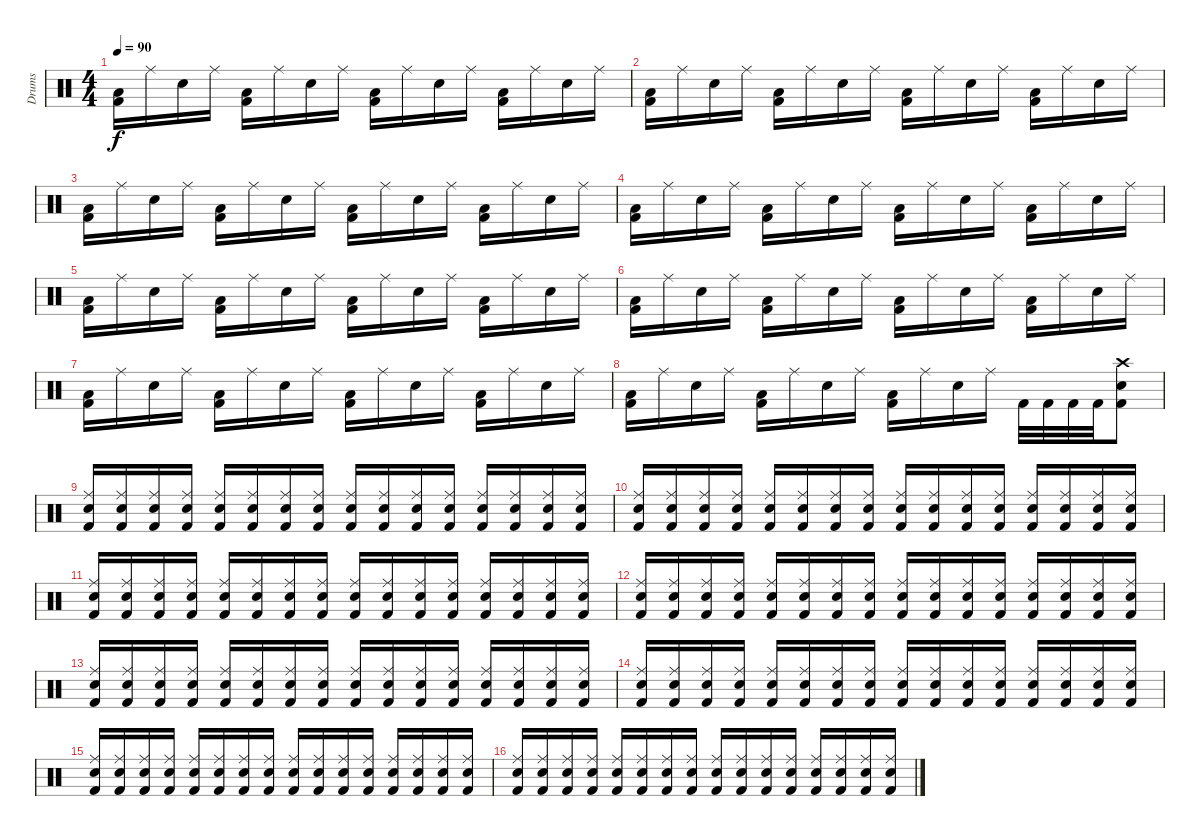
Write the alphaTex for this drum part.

\track ("Drums" "Drums") {instrument percussion}
\staff {score}
\articulation defaults
\ts (4 4)
\tempo 90
\clef neutral
\ks c
("Low Floor Tom (hit)" "Kick (hit) 2").16{dy f} "Ride (middle)".16 "Snare (hit) 2".16 "Ride (middle)".16 ("Low Floor Tom (hit)" "Kick (hit) 2").16 "Ride (middle)".16 "Snare (hit) 2".16 "Ride (middle)".16 ("Low Floor Tom (hit)" "Kick (hit) 2").16 "Ride (middle)".16 "Snare (hit) 2".16 "Ride (middle)".16 ("Low Floor Tom (hit)" "Kick (hit) 2").16 "Ride (middle)".16 "Snare (hit) 2".16 "Ride (middle)".16 |
("Low Floor Tom (hit)" "Kick (hit) 2").16 "Ride (middle)".16 "Snare (hit) 2".16 "Ride (middle)".16 ("Low Floor Tom (hit)" "Kick (hit) 2").16 "Ride (middle)".16 "Snare (hit) 2".16 "Ride (middle)".16 ("Low Floor Tom (hit)" "Kick (hit) 2").16 "Ride (middle)".16 "Snare (hit) 2".16 "Ride (middle)".16 ("Low Floor Tom (hit)" "Kick (hit) 2").16 "Ride (middle)".16 "Snare (hit) 2".16 "Ride (middle)".16 |
("Low Floor Tom (hit)" "Kick (hit) 2").16 "Ride (middle)".16 "Snare (hit) 2".16 "Ride (middle)".16 ("Low Floor Tom (hit)" "Kick (hit) 2").16 "Ride (middle)".16 "Snare (hit) 2".16 "Ride (middle)".16 ("Low Floor Tom (hit)" "Kick (hit) 2").16 "Ride (middle)".16 "Snare (hit) 2".16 "Ride (middle)".16 ("Low Floor Tom (hit)" "Kick (hit) 2").16 "Ride (middle)".16 "Snare (hit) 2".16 "Ride (middle)".16 |
("Low Floor Tom (hit)" "Kick (hit) 2").16 "Ride (middle)".16 "Snare (hit) 2".16 "Ride (middle)".16 ("Low Floor Tom (hit)" "Kick (hit) 2").16 "Ride (middle)".16 "Snare (hit) 2".16 "Ride (middle)".16 ("Low Floor Tom (hit)" "Kick (hit) 2").16 "Ride (middle)".16 "Snare (hit) 2".16 "Ride (middle)".16 ("Low Floor Tom (hit)" "Kick (hit) 2").16 "Ride (middle)".16 "Snare (hit) 2".16 "Ride (middle)".16 |
("Low Floor Tom (hit)" "Kick (hit) 2").16 "Ride (middle)".16 "Snare (hit) 2".16 "Ride (middle)".16 ("Low Floor Tom (hit)" "Kick (hit) 2").16 "Ride (middle)".16 "Snare (hit) 2".16 "Ride (middle)".16 ("Low Floor Tom (hit)" "Kick (hit) 2").16 "Ride (middle)".16 "Snare (hit) 2".16 "Ride (middle)".16 ("Low Floor Tom (hit)" "Kick (hit) 2").16 "Ride (middle)".16 "Snare (hit) 2".16 "Ride (middle)".16 |
("Low Floor Tom (hit)" "Kick (hit) 2").16 "Ride (middle)".16 "Snare (hit) 2".16 "Ride (middle)".16 ("Low Floor Tom (hit)" "Kick (hit) 2").16 "Ride (middle)".16 "Snare (hit) 2".16 "Ride (middle)".16 ("Low Floor Tom (hit)" "Kick (hit) 2").16 "Ride (middle)".16 "Snare (hit) 2".16 "Ride (middle)".16 ("Low Floor Tom (hit)" "Kick (hit) 2").16 "Ride (middle)".16 "Snare (hit) 2".16 "Ride (middle)".16 |
("Low Floor Tom (hit)" "Kick (hit) 2").16 "Ride (middle)".16 "Snare (hit) 2".16 "Ride (middle)".16 ("Low Floor Tom (hit)" "Kick (hit) 2").16 "Ride (middle)".16 "Snare (hit) 2".16 "Ride (middle)".16 ("Low Floor Tom (hit)" "Kick (hit) 2").16 "Ride (middle)".16 "Snare (hit) 2".16 "Ride (middle)".16 ("Low Floor Tom (hit)" "Kick (hit) 2").16 "Ride (middle)".16 "Snare (hit) 2".16 "Ride (middle)".16 |
("Low Floor Tom (hit)" "Kick (hit) 2").16 "Ride (middle)".16 "Snare (hit) 2".16 "Ride (middle)".16 ("Low Floor Tom (hit)" "Kick (hit) 2").16 "Ride (middle)".16 "Snare (hit) 2".16 "Ride (middle)".16 ("Low Floor Tom (hit)" "Kick (hit) 2").16 "Ride (middle)".16 "Snare (hit) 2".16 "Ride (middle)".16 "Kick (hit) 2".32 "Kick (hit) 2".32 "Kick (hit) 2".32 "Kick (hit) 2".32 ("Crash high (hit)" "Snare (hit) 2" "Kick (hit) 2").8 |
("Ride (middle)" "Snare (hit) 2" "Kick (hit) 2").16 ("Ride (middle)" "Snare (hit) 2" "Kick (hit) 2").16 ("Ride (middle)" "Snare (hit) 2" "Kick (hit) 2").16 ("Ride (middle)" "Snare (hit) 2" "Kick (hit) 2").16 ("Ride (middle)" "Snare (hit) 2" "Kick (hit) 2").16 ("Ride (middle)" "Snare (hit) 2" "Kick (hit) 2").16 ("Ride (middle)" "Snare (hit) 2" "Kick (hit) 2").16 ("Ride (middle)" "Snare (hit) 2" "Kick (hit) 2").16 ("Ride (middle)" "Snare (hit) 2" "Kick (hit) 2").16 ("Ride (middle)" "Snare (hit) 2" "Kick (hit) 2").16 ("Ride (middle)" "Snare (hit) 2" "Kick (hit) 2").16 ("Ride (middle)" "Snare (hit) 2" "Kick (hit) 2").16 ("Ride (middle)" "Snare (hit) 2" "Kick (hit) 2").16 ("Ride (middle)" "Snare (hit) 2" "Kick (hit) 2").16 ("Ride (middle)" "Snare (hit) 2" "Kick (hit) 2").16 ("Ride (middle)" "Snare (hit) 2" "Kick (hit) 2").16 |
("Ride (middle)" "Snare (hit) 2" "Kick (hit) 2").16 ("Ride (middle)" "Snare (hit) 2" "Kick (hit) 2").16 ("Ride (middle)" "Snare (hit) 2" "Kick (hit) 2").16 ("Ride (middle)" "Snare (hit) 2" "Kick (hit) 2").16 ("Ride (middle)" "Snare (hit) 2" "Kick (hit) 2").16 ("Ride (middle)" "Snare (hit) 2" "Kick (hit) 2").16 ("Ride (middle)" "Snare (hit) 2" "Kick (hit) 2").16 ("Ride (middle)" "Snare (hit) 2" "Kick (hit) 2").16 ("Ride (middle)" "Snare (hit) 2" "Kick (hit) 2").16 ("Ride (middle)" "Snare (hit) 2" "Kick (hit) 2").16 ("Ride (middle)" "Snare (hit) 2" "Kick (hit) 2").16 ("Ride (middle)" "Snare (hit) 2" "Kick (hit) 2").16 ("Ride (middle)" "Snare (hit) 2" "Kick (hit) 2").16 ("Ride (middle)" "Snare (hit) 2" "Kick (hit) 2").16 ("Ride (middle)" "Snare (hit) 2" "Kick (hit) 2").16 ("Ride (middle)" "Snare (hit) 2" "Kick (hit) 2").16 |
("Ride (middle)" "Snare (hit) 2" "Kick (hit) 2").16 ("Ride (middle)" "Snare (hit) 2" "Kick (hit) 2").16 ("Ride (middle)" "Snare (hit) 2" "Kick (hit) 2").16 ("Ride (middle)" "Snare (hit) 2" "Kick (hit) 2").16 ("Ride (middle)" "Snare (hit) 2" "Kick (hit) 2").16 ("Ride (middle)" "Snare (hit) 2" "Kick (hit) 2").16 ("Ride (middle)" "Snare (hit) 2" "Kick (hit) 2").16 ("Ride (middle)" "Snare (hit) 2" "Kick (hit) 2").16 ("Ride (middle)" "Snare (hit) 2" "Kick (hit) 2").16 ("Ride (middle)" "Snare (hit) 2" "Kick (hit) 2").16 ("Ride (middle)" "Snare (hit) 2" "Kick (hit) 2").16 ("Ride (middle)" "Snare (hit) 2" "Kick (hit) 2").16 ("Ride (middle)" "Snare (hit) 2" "Kick (hit) 2").16 ("Ride (middle)" "Snare (hit) 2" "Kick (hit) 2").16 ("Ride (middle)" "Snare (hit) 2" "Kick (hit) 2").16 ("Ride (middle)" "Snare (hit) 2" "Kick (hit) 2").16 |
("Ride (middle)" "Snare (hit) 2" "Kick (hit) 2").16 ("Ride (middle)" "Snare (hit) 2" "Kick (hit) 2").16 ("Ride (middle)" "Snare (hit) 2" "Kick (hit) 2").16 ("Ride (middle)" "Snare (hit) 2" "Kick (hit) 2").16 ("Ride (middle)" "Snare (hit) 2" "Kick (hit) 2").16 ("Ride (middle)" "Snare (hit) 2" "Kick (hit) 2").16 ("Ride (middle)" "Snare (hit) 2" "Kick (hit) 2").16 ("Ride (middle)" "Snare (hit) 2" "Kick (hit) 2").16 ("Ride (middle)" "Snare (hit) 2" "Kick (hit) 2").16 ("Ride (middle)" "Snare (hit) 2" "Kick (hit) 2").16 ("Ride (middle)" "Snare (hit) 2" "Kick (hit) 2").16 ("Ride (middle)" "Snare (hit) 2" "Kick (hit) 2").16 ("Ride (middle)" "Snare (hit) 2" "Kick (hit) 2").16 ("Ride (middle)" "Snare (hit) 2" "Kick (hit) 2").16 ("Ride (middle)" "Snare (hit) 2" "Kick (hit) 2").16 ("Ride (middle)" "Snare (hit) 2" "Kick (hit) 2").16 |
("Ride (middle)" "Snare (hit) 2" "Kick (hit) 2").16 ("Ride (middle)" "Snare (hit) 2" "Kick (hit) 2").16 ("Ride (middle)" "Snare (hit) 2" "Kick (hit) 2").16 ("Ride (middle)" "Snare (hit) 2" "Kick (hit) 2").16 ("Ride (middle)" "Snare (hit) 2" "Kick (hit) 2").16 ("Ride (middle)" "Snare (hit) 2" "Kick (hit) 2").16 ("Ride (middle)" "Snare (hit) 2" "Kick (hit) 2").16 ("Ride (middle)" "Snare (hit) 2" "Kick (hit) 2").16 ("Ride (middle)" "Snare (hit) 2" "Kick (hit) 2").16 ("Ride (middle)" "Snare (hit) 2" "Kick (hit) 2").16 ("Ride (middle)" "Snare (hit) 2" "Kick (hit) 2").16 ("Ride (middle)" "Snare (hit) 2" "Kick (hit) 2").16 ("Ride (middle)" "Snare (hit) 2" "Kick (hit) 2").16 ("Ride (middle)" "Snare (hit) 2" "Kick (hit) 2").16 ("Ride (middle)" "Snare (hit) 2" "Kick (hit) 2").16 ("Ride (middle)" "Snare (hit) 2" "Kick (hit) 2").16 |
("Ride (middle)" "Snare (hit) 2" "Kick (hit) 2").16 ("Ride (middle)" "Snare (hit) 2" "Kick (hit) 2").16 ("Ride (middle)" "Snare (hit) 2" "Kick (hit) 2").16 ("Ride (middle)" "Snare (hit) 2" "Kick (hit) 2").16 ("Ride (middle)" "Snare (hit) 2" "Kick (hit) 2").16 ("Ride (middle)" "Snare (hit) 2" "Kick (hit) 2").16 ("Ride (middle)" "Snare (hit) 2" "Kick (hit) 2").16 ("Ride (middle)" "Snare (hit) 2" "Kick (hit) 2").16 ("Ride (middle)" "Snare (hit) 2" "Kick (hit) 2").16 ("Ride (middle)" "Snare (hit) 2" "Kick (hit) 2").16 ("Ride (middle)" "Snare (hit) 2" "Kick (hit) 2").16 ("Ride (middle)" "Snare (hit) 2" "Kick (hit) 2").16 ("Ride (middle)" "Snare (hit) 2" "Kick (hit) 2").16 ("Ride (middle)" "Snare (hit) 2" "Kick (hit) 2").16 ("Ride (middle)" "Snare (hit) 2" "Kick (hit) 2").16 ("Ride (middle)" "Snare (hit) 2" "Kick (hit) 2").16 |
("Ride (middle)" "Snare (hit) 2" "Kick (hit) 2").16 ("Ride (middle)" "Snare (hit) 2" "Kick (hit) 2").16 ("Ride (middle)" "Snare (hit) 2" "Kick (hit) 2").16 ("Ride (middle)" "Snare (hit) 2" "Kick (hit) 2").16 ("Ride (middle)" "Snare (hit) 2" "Kick (hit) 2").16 ("Ride (middle)" "Snare (hit) 2" "Kick (hit) 2").16 ("Ride (middle)" "Snare (hit) 2" "Kick (hit) 2").16 ("Ride (middle)" "Snare (hit) 2" "Kick (hit) 2").16 ("Ride (middle)" "Snare (hit) 2" "Kick (hit) 2").16 ("Ride (middle)" "Snare (hit) 2" "Kick (hit) 2").16 ("Ride (middle)" "Snare (hit) 2" "Kick (hit) 2").16 ("Ride (middle)" "Snare (hit) 2" "Kick (hit) 2").16 ("Ride (middle)" "Snare (hit) 2" "Kick (hit) 2").16 ("Ride (middle)" "Snare (hit) 2" "Kick (hit) 2").16 ("Ride (middle)" "Snare (hit) 2" "Kick (hit) 2").16 ("Ride (middle)" "Snare (hit) 2" "Kick (hit) 2").16 |
("Ride (middle)" "Snare (hit) 2" "Kick (hit) 2").16 ("Ride (middle)" "Snare (hit) 2" "Kick (hit) 2").16 ("Ride (middle)" "Snare (hit) 2" "Kick (hit) 2").16 ("Ride (middle)" "Snare (hit) 2" "Kick (hit) 2").16 ("Ride (middle)" "Snare (hit) 2" "Kick (hit) 2").16 ("Ride (middle)" "Snare (hit) 2" "Kick (hit) 2").16 ("Ride (middle)" "Snare (hit) 2" "Kick (hit) 2").16 ("Ride (middle)" "Snare (hit) 2" "Kick (hit) 2").16 ("Ride (middle)" "Snare (hit) 2" "Kick (hit) 2").16 ("Ride (middle)" "Snare (hit) 2" "Kick (hit) 2").16 ("Ride (middle)" "Snare (hit) 2" "Kick (hit) 2").16 ("Ride (middle)" "Snare (hit) 2" "Kick (hit) 2").16 ("Ride (middle)" "Snare (hit) 2" "Kick (hit) 2").16 ("Ride (middle)" "Snare (hit) 2" "Kick (hit) 2").16 ("Ride (middle)" "Snare (hit) 2" "Kick (hit) 2").16 ("Ride (middle)" "Snare (hit) 2" "Kick (hit) 2").16
